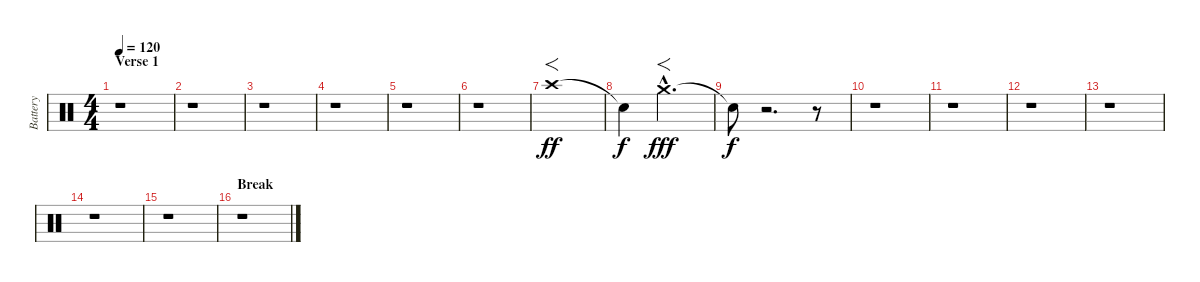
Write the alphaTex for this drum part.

\track ("Battery" "Battery") {instrument percussion}
\staff {score}
\articulation defaults
\ts (4 4)
\section ("" "Verse 1")
\tempo 120
\clef neutral
\ks c
r.1{dy f} |
r.1 |
r.1 |
r.1 |
r.1 |
r.1 |
"Crash high (hit)".1{f dy ff volume 16} |
"Snare (hit)"{t}.4{dy f} "Crash medium (hit)"{hac}.2{f d dy fff} |
"Snare (hit)"{t}.8{dy f} r.2{d} r.8 |
r.1 |
r.1 |
r.1 |
r.1 |
r.1 |
r.1 |
\section ("" "Break")
r.1
